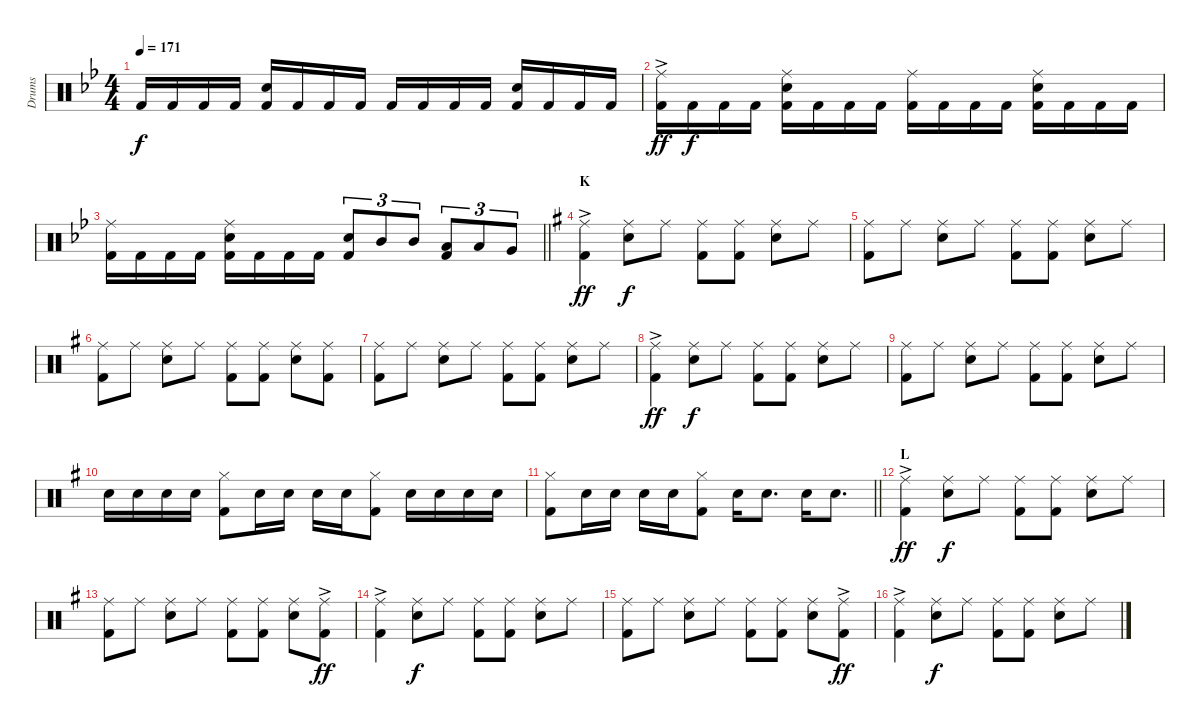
\track ("Drums" "Drums") {instrument percussion}
\staff {score}
\articulation defaults
\ts (4 4)
\tempo 171
\clef neutral
\ks bb "Kick (hit) 2".16{dy f} "Kick (hit) 2".16 "Kick (hit) 2".16 "Kick (hit) 2".16
("Snare (hit) 2" "Kick (hit) 2").16 "Kick (hit) 2".16 "Kick (hit) 2".16 "Kick (hit) 2".16 "Kick (hit) 2".16 "Kick (hit) 2".16 "Kick (hit) 2".16 "Kick (hit) 2".16 ("Snare (hit) 2" "Kick (hit) 2").16 "Kick (hit) 2".16 "Kick (hit) 2".16 "Kick (hit) 2".16 |
("Ride (middle)"{ac} "Kick (hit) 2").16{dy ff} "Kick (hit) 2".16{dy f} "Kick (hit) 2".16 "Kick (hit) 2".16 ("Ride (middle)" "Snare (hit) 2" "Kick (hit) 2").16 "Kick (hit) 2".16 "Kick (hit) 2".16 "Kick (hit) 2".16 ("Ride (middle)" "Kick (hit) 2").16 "Kick (hit) 2".16 "Kick (hit) 2".16 "Kick (hit) 2".16 ("Ride (middle)" "Snare (hit) 2" "Kick (hit) 2").16 "Kick (hit) 2".16 "Kick (hit) 2".16 "Kick (hit) 2".16 |
\barLineRight lightlight
("Ride (middle)" "Kick (hit) 2").16 "Kick (hit) 2".16 "Kick (hit) 2".16 "Kick (hit) 2".16 ("Ride (middle)" "Snare (hit) 2" "Kick (hit) 2").16 "Kick (hit) 2".16 "Kick (hit) 2".16 "Kick (hit) 2".16 ("Snare (hit) 2" "Kick (hit) 2").8{tu (3 2)} "Mid Tom (hit)".8{tu (3 2)} "Mid Tom (hit)".8{tu (3 2)} ("Low Tom (hit)" "Kick (hit) 2").8{tu (3 2)} "Low Tom (hit)".8{tu (3 2)} "Very Low Tom (hit)".8{tu (3 2)} |
\section ("" "K")
\ks g
("Ride (middle)"{ac} "Kick (hit) 2").4{dy ff} ("Ride (middle)" "Snare (hit) 2").8{dy f} "Ride (middle)".8 ("Ride (middle)" "Kick (hit) 2").8 ("Ride (middle)" "Kick (hit) 2").8 ("Ride (middle)" "Snare (hit) 2").8 "Ride (middle)".8 |
("Ride (middle)" "Kick (hit) 2").8 "Ride (middle)".8 ("Ride (middle)" "Snare (hit) 2").8 "Ride (middle)".8 ("Ride (middle)" "Kick (hit) 2").8 ("Ride (middle)" "Kick (hit) 2").8 ("Ride (middle)" "Snare (hit) 2").8 "Ride (middle)".8 |
("Ride (middle)" "Kick (hit) 2").8 "Ride (middle)".8 ("Ride (middle)" "Snare (hit) 2").8 "Ride (middle)".8 ("Ride (middle)" "Kick (hit) 2").8 ("Ride (middle)" "Kick (hit) 2").8 ("Ride (middle)" "Snare (hit) 2").8 ("Ride (middle)" "Kick (hit) 2").8 |
("Ride (middle)" "Kick (hit) 2").8 "Ride (middle)".8 ("Ride (middle)" "Snare (hit) 2").8 "Ride (middle)".8 ("Ride (middle)" "Kick (hit) 2").8 ("Ride (middle)" "Kick (hit) 2").8 ("Ride (middle)" "Snare (hit) 2").8 "Ride (middle)".8 |
("Ride (middle)"{ac} "Kick (hit) 2").4{dy ff} ("Ride (middle)" "Snare (hit) 2").8{dy f} "Ride (middle)".8 ("Ride (middle)" "Kick (hit) 2").8 ("Ride (middle)" "Kick (hit) 2").8 ("Ride (middle)" "Snare (hit) 2").8 "Ride (middle)".8 |
("Ride (middle)" "Kick (hit) 2").8 "Ride (middle)".8 ("Ride (middle)" "Snare (hit) 2").8 "Ride (middle)".8 ("Ride (middle)" "Kick (hit) 2").8 ("Ride (middle)" "Kick (hit) 2").8 ("Ride (middle)" "Snare (hit) 2").8 "Ride (middle)".8 |
"Snare (hit) 2".16 "Snare (hit) 2".16 "Snare (hit) 2".16 "Snare (hit) 2".16 ("Hi-Hat (closed)" "Kick (hit) 2").8 "Snare (hit) 2".16 "Snare (hit) 2".16 "Snare (hit) 2".16 "Snare (hit) 2".16 ("Hi-Hat (closed)" "Kick (hit) 2").8 "Snare (hit) 2".16 "Snare (hit) 2".16 "Snare (hit) 2".16 "Snare (hit) 2".16 |
\barLineRight lightlight
("Hi-Hat (closed)" "Kick (hit) 2").8 "Snare (hit) 2".16 "Snare (hit) 2".16 "Snare (hit) 2".16 "Snare (hit) 2".16 ("Hi-Hat (closed)" "Kick (hit) 2").8 "Snare (hit) 2".16 "Snare (hit) 2".8{d} "Snare (hit) 2".16 "Snare (hit) 2".8{d} |
\section ("" "L")
("Ride (middle)"{ac} "Kick (hit) 2").4{dy ff} ("Ride (middle)" "Snare (hit) 2").8{dy f} "Ride (middle)".8 ("Ride (middle)" "Kick (hit) 2").8 ("Ride (middle)" "Kick (hit) 2").8 ("Ride (middle)" "Snare (hit) 2").8 "Ride (middle)".8 |
("Ride (middle)" "Kick (hit) 2").8 "Ride (middle)".8 ("Ride (middle)" "Snare (hit) 2").8 "Ride (middle)".8 ("Ride (middle)" "Kick (hit) 2").8 ("Ride (middle)" "Kick (hit) 2").8 ("Ride (middle)" "Snare (hit) 2").8 ("Ride (middle)"{ac} "Kick (hit) 2").8{dy ff} |
("Ride (middle)"{ac} "Kick (hit) 2").4 ("Ride (middle)" "Snare (hit) 2").8{dy f} "Ride (middle)".8 ("Ride (middle)" "Kick (hit) 2").8 ("Ride (middle)" "Kick (hit) 2").8 ("Ride (middle)" "Snare (hit) 2").8 "Ride (middle)".8 |
("Ride (middle)" "Kick (hit) 2").8 "Ride (middle)".8 ("Ride (middle)" "Snare (hit) 2").8 "Ride (middle)".8 ("Ride (middle)" "Kick (hit) 2").8 ("Ride (middle)" "Kick (hit) 2").8 ("Ride (middle)" "Snare (hit) 2").8 ("Ride (middle)"{ac} "Kick (hit) 2").8{dy ff} |
("Ride (middle)"{ac} "Kick (hit) 2").4 ("Ride (middle)" "Snare (hit) 2").8{dy f} "Ride (middle)".8 ("Ride (middle)" "Kick (hit) 2").8 ("Ride (middle)" "Kick (hit) 2").8 ("Ride (middle)" "Snare (hit) 2").8 "Ride (middle)".8
